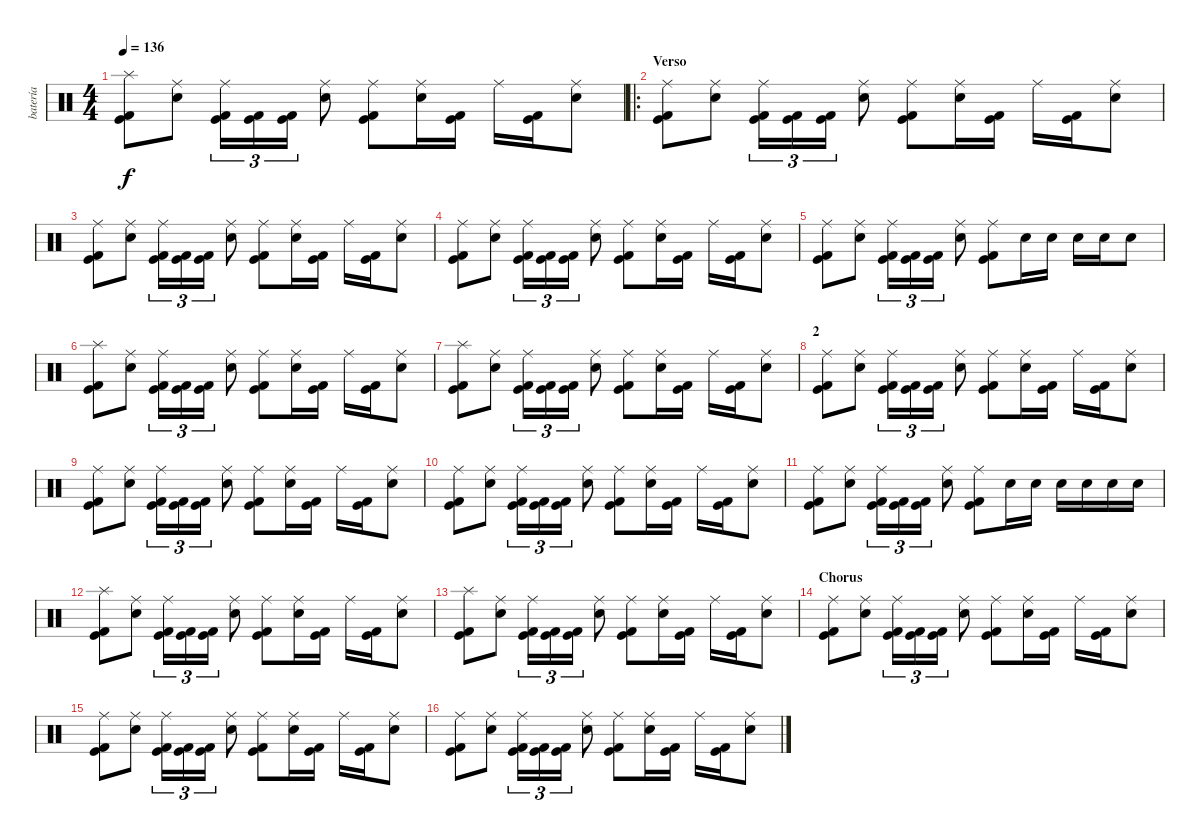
\track ("batería" "batería") {instrument percussion}
\staff {score}
\articulation defaults
\ts (4 4)
\tempo 136
\clef neutral
\ks c
("Kick (hit) 2" "Splash (hit)" "Kick (hit)").8{dy f} ("Snare (hit) 2" "Ride (middle)").8 ("Kick (hit) 2" "Ride (middle)" "Kick (hit)").16{tu (3 2)} ("Kick (hit) 2" "Kick (hit)").16{tu (3 2)} ("Kick (hit) 2" "Kick (hit)").16{tu (3 2)} ("Snare (hit) 2" "Ride (middle)").8 ("Kick (hit) 2" "Ride (middle)" "Kick (hit)").8 ("Snare (hit) 2" "Ride (middle)").16 ("Kick (hit) 2" "Kick (hit)").16 "Ride (middle)".16 ("Kick (hit) 2" "Kick (hit)").16 ("Snare (hit) 2" "Ride (middle)").8 |
\ro
\section ("" "Verso")
("Kick (hit) 2" "Ride (middle)" "Kick (hit)").8 ("Snare (hit) 2" "Ride (middle)").8 ("Kick (hit) 2" "Ride (middle)" "Kick (hit)").16{tu (3 2)} ("Kick (hit) 2" "Kick (hit)").16{tu (3 2)} ("Kick (hit) 2" "Kick (hit)").16{tu (3 2)} ("Snare (hit) 2" "Ride (middle)").8 ("Kick (hit) 2" "Ride (middle)" "Kick (hit)").8 ("Snare (hit) 2" "Ride (middle)").16 ("Kick (hit) 2" "Kick (hit)").16 "Ride (middle)".16 ("Kick (hit) 2" "Kick (hit)").16 ("Snare (hit) 2" "Ride (middle)").8 |
("Kick (hit) 2" "Ride (middle)" "Kick (hit)").8 ("Snare (hit) 2" "Ride (middle)").8 ("Kick (hit) 2" "Ride (middle)" "Kick (hit)").16{tu (3 2)} ("Kick (hit) 2" "Kick (hit)").16{tu (3 2)} ("Kick (hit) 2" "Kick (hit)").16{tu (3 2)} ("Snare (hit) 2" "Ride (middle)").8 ("Kick (hit) 2" "Ride (middle)" "Kick (hit)").8 ("Snare (hit) 2" "Ride (middle)").16 ("Kick (hit) 2" "Kick (hit)").16 "Ride (middle)".16 ("Kick (hit) 2" "Kick (hit)").16 ("Snare (hit) 2" "Ride (middle)").8 |
("Kick (hit) 2" "Ride (middle)" "Kick (hit)").8 ("Snare (hit) 2" "Ride (middle)").8 ("Kick (hit) 2" "Ride (middle)" "Kick (hit)").16{tu (3 2)} ("Kick (hit) 2" "Kick (hit)").16{tu (3 2)} ("Kick (hit) 2" "Kick (hit)").16{tu (3 2)} ("Snare (hit) 2" "Ride (middle)").8 ("Kick (hit) 2" "Ride (middle)" "Kick (hit)").8 ("Snare (hit) 2" "Ride (middle)").16 ("Kick (hit) 2" "Kick (hit)").16 "Ride (middle)".16 ("Kick (hit) 2" "Kick (hit)").16 ("Snare (hit) 2" "Ride (middle)").8 |
("Kick (hit) 2" "Ride (middle)" "Kick (hit)").8 ("Snare (hit) 2" "Ride (middle)").8 ("Kick (hit) 2" "Ride (middle)" "Kick (hit)").16{tu (3 2)} ("Kick (hit) 2" "Kick (hit)").16{tu (3 2)} ("Kick (hit) 2" "Kick (hit)").16{tu (3 2)} ("Snare (hit) 2" "Ride (middle)").8 ("Kick (hit) 2" "Ride (middle)" "Kick (hit)").8 "Snare (hit) 2".16 "Snare (hit) 2".16 "Snare (hit) 2".16 "Snare (hit) 2".16 "Snare (hit) 2".8 |
("Kick (hit) 2" "Splash (hit)" "Kick (hit)").8 ("Snare (hit) 2" "Ride (middle)").8 ("Kick (hit) 2" "Ride (middle)" "Kick (hit)").16{tu (3 2)} ("Kick (hit) 2" "Kick (hit)").16{tu (3 2)} ("Kick (hit) 2" "Kick (hit)").16{tu (3 2)} ("Snare (hit) 2" "Ride (middle)").8 ("Kick (hit) 2" "Ride (middle)" "Kick (hit)").8 ("Snare (hit) 2" "Ride (middle)").16 ("Kick (hit) 2" "Kick (hit)").16 "Ride (middle)".16 ("Kick (hit) 2" "Kick (hit)").16 ("Snare (hit) 2" "Ride (middle)").8 |
("Kick (hit) 2" "Splash (hit)" "Kick (hit)").8 ("Snare (hit) 2" "Ride (middle)").8 ("Kick (hit) 2" "Ride (middle)" "Kick (hit)").16{tu (3 2)} ("Kick (hit) 2" "Kick (hit)").16{tu (3 2)} ("Kick (hit) 2" "Kick (hit)").16{tu (3 2)} ("Snare (hit) 2" "Ride (middle)").8 ("Kick (hit) 2" "Ride (middle)" "Kick (hit)").8 ("Snare (hit) 2" "Ride (middle)").16 ("Kick (hit) 2" "Kick (hit)").16 "Ride (middle)".16 ("Kick (hit) 2" "Kick (hit)").16 ("Snare (hit) 2" "Ride (middle)").8 |
\section ("" "2")
("Kick (hit) 2" "Ride (middle)" "Kick (hit)").8 ("Snare (hit) 2" "Ride (middle)").8 ("Kick (hit) 2" "Ride (middle)" "Kick (hit)").16{tu (3 2)} ("Kick (hit) 2" "Kick (hit)").16{tu (3 2)} ("Kick (hit) 2" "Kick (hit)").16{tu (3 2)} ("Snare (hit) 2" "Ride (middle)").8 ("Kick (hit) 2" "Ride (middle)" "Kick (hit)").8 ("Snare (hit) 2" "Ride (middle)").16 ("Kick (hit) 2" "Kick (hit)").16 "Ride (middle)".16 ("Kick (hit) 2" "Kick (hit)").16 ("Snare (hit) 2" "Ride (middle)").8 |
("Kick (hit) 2" "Ride (middle)" "Kick (hit)").8 ("Snare (hit) 2" "Ride (middle)").8 ("Kick (hit) 2" "Ride (middle)" "Kick (hit)").16{tu (3 2)} ("Kick (hit) 2" "Kick (hit)").16{tu (3 2)} ("Kick (hit) 2" "Kick (hit)").16{tu (3 2)} ("Snare (hit) 2" "Ride (middle)").8 ("Kick (hit) 2" "Ride (middle)" "Kick (hit)").8 ("Snare (hit) 2" "Ride (middle)").16 ("Kick (hit) 2" "Kick (hit)").16 "Ride (middle)".16 ("Kick (hit) 2" "Kick (hit)").16 ("Snare (hit) 2" "Ride (middle)").8 |
("Kick (hit) 2" "Ride (middle)" "Kick (hit)").8 ("Snare (hit) 2" "Ride (middle)").8 ("Kick (hit) 2" "Ride (middle)" "Kick (hit)").16{tu (3 2)} ("Kick (hit) 2" "Kick (hit)").16{tu (3 2)} ("Kick (hit) 2" "Kick (hit)").16{tu (3 2)} ("Snare (hit) 2" "Ride (middle)").8 ("Kick (hit) 2" "Ride (middle)" "Kick (hit)").8 ("Snare (hit) 2" "Ride (middle)").16 ("Kick (hit) 2" "Kick (hit)").16 "Ride (middle)".16 ("Kick (hit) 2" "Kick (hit)").16 ("Snare (hit) 2" "Ride (middle)").8 |
("Kick (hit) 2" "Ride (middle)" "Kick (hit)").8 ("Snare (hit) 2" "Ride (middle)").8 ("Kick (hit) 2" "Ride (middle)" "Kick (hit)").16{tu (3 2)} ("Kick (hit) 2" "Kick (hit)").16{tu (3 2)} ("Kick (hit) 2" "Kick (hit)").16{tu (3 2)} ("Snare (hit) 2" "Ride (middle)").8 ("Kick (hit) 2" "Ride (middle)" "Kick (hit)").8 "Snare (hit) 2".16 "Snare (hit) 2".16 "Snare (hit) 2".16 "Snare (hit) 2".16 "Snare (hit) 2".16 "Snare (hit) 2".16 |
("Kick (hit) 2" "Splash (hit)" "Kick (hit)").8 ("Snare (hit) 2" "Ride (middle)").8 ("Kick (hit) 2" "Ride (middle)" "Kick (hit)").16{tu (3 2)} ("Kick (hit) 2" "Kick (hit)").16{tu (3 2)} ("Kick (hit) 2" "Kick (hit)").16{tu (3 2)} ("Snare (hit) 2" "Ride (middle)").8 ("Kick (hit) 2" "Ride (middle)" "Kick (hit)").8 ("Snare (hit) 2" "Ride (middle)").16 ("Kick (hit) 2" "Kick (hit)").16 "Ride (middle)".16 ("Kick (hit) 2" "Kick (hit)").16 ("Snare (hit) 2" "Ride (middle)").8 |
("Kick (hit) 2" "Splash (hit)" "Kick (hit)").8 ("Snare (hit) 2" "Ride (middle)").8 ("Kick (hit) 2" "Ride (middle)" "Kick (hit)").16{tu (3 2)} ("Kick (hit) 2" "Kick (hit)").16{tu (3 2)} ("Kick (hit) 2" "Kick (hit)").16{tu (3 2)} ("Snare (hit) 2" "Ride (middle)").8 ("Kick (hit) 2" "Ride (middle)" "Kick (hit)").8 ("Snare (hit) 2" "Ride (middle)").16 ("Kick (hit) 2" "Kick (hit)").16 "Ride (middle)".16 ("Kick (hit) 2" "Kick (hit)").16 ("Snare (hit) 2" "Ride (middle)").8 |
\section ("" "Chorus")
("Kick (hit) 2" "Ride (middle)" "Kick (hit)").8 ("Snare (hit) 2" "Ride (middle)").8 ("Kick (hit) 2" "Ride (middle)" "Kick (hit)").16{tu (3 2)} ("Kick (hit) 2" "Kick (hit)").16{tu (3 2)} ("Kick (hit) 2" "Kick (hit)").16{tu (3 2)} ("Snare (hit) 2" "Ride (middle)").8 ("Kick (hit) 2" "Ride (middle)" "Kick (hit)").8 ("Snare (hit) 2" "Ride (middle)").16 ("Kick (hit) 2" "Kick (hit)").16 "Ride (middle)".16 ("Kick (hit) 2" "Kick (hit)").16 ("Snare (hit) 2" "Ride (middle)").8 |
("Kick (hit) 2" "Ride (middle)" "Kick (hit)").8 ("Snare (hit) 2" "Ride (middle)").8 ("Kick (hit) 2" "Ride (middle)" "Kick (hit)").16{tu (3 2)} ("Kick (hit) 2" "Kick (hit)").16{tu (3 2)} ("Kick (hit) 2" "Kick (hit)").16{tu (3 2)} ("Snare (hit) 2" "Ride (middle)").8 ("Kick (hit) 2" "Ride (middle)" "Kick (hit)").8 ("Snare (hit) 2" "Ride (middle)").16 ("Kick (hit) 2" "Kick (hit)").16 "Ride (middle)".16 ("Kick (hit) 2" "Kick (hit)").16 ("Snare (hit) 2" "Ride (middle)").8 |
("Kick (hit) 2" "Ride (middle)" "Kick (hit)").8 ("Snare (hit) 2" "Ride (middle)").8 ("Kick (hit) 2" "Ride (middle)" "Kick (hit)").16{tu (3 2)} ("Kick (hit) 2" "Kick (hit)").16{tu (3 2)} ("Kick (hit) 2" "Kick (hit)").16{tu (3 2)} ("Snare (hit) 2" "Ride (middle)").8 ("Kick (hit) 2" "Ride (middle)" "Kick (hit)").8 ("Snare (hit) 2" "Ride (middle)").16 ("Kick (hit) 2" "Kick (hit)").16 "Ride (middle)".16 ("Kick (hit) 2" "Kick (hit)").16 ("Snare (hit) 2" "Ride (middle)").8
